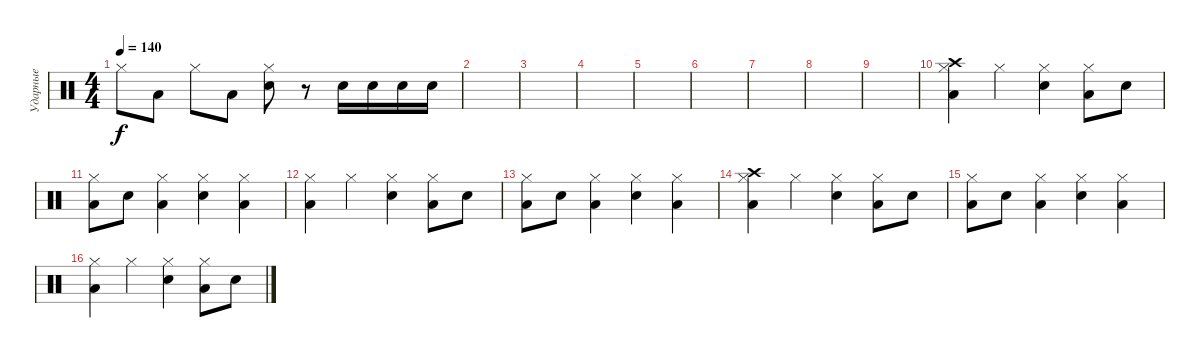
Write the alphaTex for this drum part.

\track ("Ударные" "Ударные") {instrument percussion}
\staff {score}
\articulation defaults
\ts (4 4)
\tempo 140
\clef neutral
\ks c "Hi-Hat (closed)".8{dy f} "Low Floor Tom (hit)".8 "Hi-Hat (closed)".8 "Low Floor Tom (hit)".8
("Hi-Hat (closed)" "Electric Snare (hit)").8 r.8 "Snare (hit) 2".16 "Snare (hit) 2".16 "Snare (hit) 2".16 "Snare (hit) 2".16 |
|
|
|
|
|
|
|
|
("Hi-Hat (closed)" "Crash high (hit)" "Low Floor Tom (hit)").4 "Hi-Hat (closed)".4 ("Hi-Hat (closed)" "Electric Snare (hit)").4 ("Hi-Hat (closed)" "Low Floor Tom (hit)").8 "Electric Snare (hit)".8 |
("Hi-Hat (closed)" "Low Floor Tom (hit)").8 "Electric Snare (hit)".8 ("Hi-Hat (closed)" "Low Floor Tom (hit)").4 ("Electric Snare (hit)" "Hi-Hat (closed)").4 ("Low Floor Tom (hit)" "Hi-Hat (closed)").4 |
("Hi-Hat (closed)" "Low Floor Tom (hit)").4 "Hi-Hat (closed)".4 ("Hi-Hat (closed)" "Electric Snare (hit)").4 ("Hi-Hat (closed)" "Low Floor Tom (hit)").8 "Electric Snare (hit)".8 |
("Hi-Hat (closed)" "Low Floor Tom (hit)").8 "Electric Snare (hit)".8 ("Hi-Hat (closed)" "Low Floor Tom (hit)").4 ("Electric Snare (hit)" "Hi-Hat (closed)").4 ("Low Floor Tom (hit)" "Hi-Hat (closed)").4 |
("Hi-Hat (closed)" "Crash high (hit)" "Low Floor Tom (hit)").4 "Hi-Hat (closed)".4 ("Hi-Hat (closed)" "Electric Snare (hit)").4 ("Hi-Hat (closed)" "Low Floor Tom (hit)").8 "Electric Snare (hit)".8 |
("Hi-Hat (closed)" "Low Floor Tom (hit)").8 "Electric Snare (hit)".8 ("Hi-Hat (closed)" "Low Floor Tom (hit)").4 ("Electric Snare (hit)" "Hi-Hat (closed)").4 ("Low Floor Tom (hit)" "Hi-Hat (closed)").4 |
("Hi-Hat (closed)" "Low Floor Tom (hit)").4 "Hi-Hat (closed)".4 ("Hi-Hat (closed)" "Electric Snare (hit)").4 ("Hi-Hat (closed)" "Low Floor Tom (hit)").8 "Electric Snare (hit)".8
